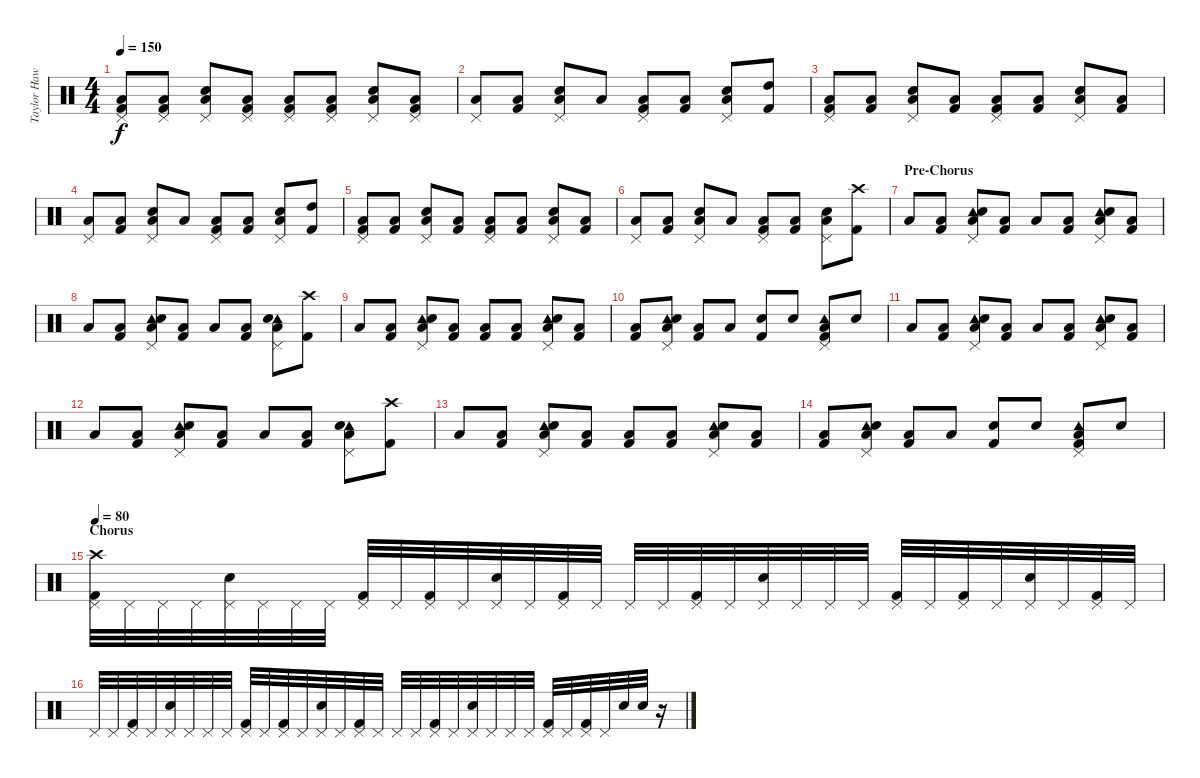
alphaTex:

\track ("Taylor Hawkins" "Taylor Haw") {instrument percussion}
\staff {score}
\articulation defaults
\ts (4 4)
\tempo 150
\clef neutral
\ks c
("Pedal Hi-Hat (hit)" "Low Floor Tom (hit)" "Kick (hit) 2").8{dy f} ("Pedal Hi-Hat (hit)" "Low Floor Tom (hit)" "Kick (hit) 2").8 ("Pedal Hi-Hat (hit)" "Low Floor Tom (hit)" "Snare (hit) 2").8 ("Pedal Hi-Hat (hit)" "Low Floor Tom (hit)" "Kick (hit) 2").8 ("Pedal Hi-Hat (hit)" "Low Floor Tom (hit)" "Kick (hit) 2").8 ("Pedal Hi-Hat (hit)" "Low Floor Tom (hit)" "Kick (hit) 2").8 ("Pedal Hi-Hat (hit)" "Low Floor Tom (hit)" "Snare (hit) 2").8 ("Pedal Hi-Hat (hit)" "Low Floor Tom (hit)" "Kick (hit) 2").8 |
("Pedal Hi-Hat (hit)" "Low Floor Tom (hit)").8 ("Low Floor Tom (hit)" "Kick (hit) 2").8 ("Pedal Hi-Hat (hit)" "Low Floor Tom (hit)" "Snare (hit) 2").8 "Low Floor Tom (hit)".8 ("Pedal Hi-Hat (hit)" "Low Floor Tom (hit)" "Kick (hit) 2").8 ("Low Floor Tom (hit)" "Kick (hit) 2").8 ("Pedal Hi-Hat (hit)" "Low Floor Tom (hit)" "Snare (hit) 2").8 ("High Tom (hit)" "Kick (hit) 2").8 |
("Pedal Hi-Hat (hit)" "Low Floor Tom (hit)" "Kick (hit) 2").8 ("Low Floor Tom (hit)" "Kick (hit) 2").8 ("Pedal Hi-Hat (hit)" "Low Floor Tom (hit)" "Snare (hit) 2").8 ("Low Floor Tom (hit)" "Kick (hit) 2").8 ("Pedal Hi-Hat (hit)" "Low Floor Tom (hit)" "Kick (hit) 2").8 ("Low Floor Tom (hit)" "Kick (hit) 2").8 ("Pedal Hi-Hat (hit)" "Low Floor Tom (hit)" "Snare (hit) 2").8 ("Low Floor Tom (hit)" "Kick (hit) 2").8 |
("Pedal Hi-Hat (hit)" "Low Floor Tom (hit)").8 ("Low Floor Tom (hit)" "Kick (hit) 2").8 ("Pedal Hi-Hat (hit)" "Low Floor Tom (hit)" "Snare (hit) 2").8 "Low Floor Tom (hit)".8 ("Pedal Hi-Hat (hit)" "Low Floor Tom (hit)" "Kick (hit) 2").8 ("Low Floor Tom (hit)" "Kick (hit) 2").8 ("Pedal Hi-Hat (hit)" "Low Floor Tom (hit)" "Snare (hit) 2").8 ("High Tom (hit)" "Kick (hit) 2").8 |
("Pedal Hi-Hat (hit)" "Low Floor Tom (hit)" "Kick (hit) 2").8 ("Low Floor Tom (hit)" "Kick (hit) 2").8 ("Pedal Hi-Hat (hit)" "Low Floor Tom (hit)" "Snare (hit) 2").8 ("Low Floor Tom (hit)" "Kick (hit) 2").8 ("Pedal Hi-Hat (hit)" "Low Floor Tom (hit)" "Kick (hit) 2").8 ("Low Floor Tom (hit)" "Kick (hit) 2").8 ("Pedal Hi-Hat (hit)" "Low Floor Tom (hit)" "Snare (hit) 2").8 ("Low Floor Tom (hit)" "Kick (hit) 2").8 |
("Pedal Hi-Hat (hit)" "Low Floor Tom (hit)").8 ("Low Floor Tom (hit)" "Kick (hit) 2").8 ("Pedal Hi-Hat (hit)" "Low Floor Tom (hit)" "Snare (hit) 2").8 "Low Floor Tom (hit)".8 ("Pedal Hi-Hat (hit)" "Low Floor Tom (hit)" "Kick (hit) 2").8 ("Low Floor Tom (hit)" "Kick (hit) 2").8 ("Pedal Hi-Hat (hit)" "Low Floor Tom (hit)" "Snare (hit) 2").8 ("Crash high (hit)" "Kick (hit) 2").8 |
\section ("" "Pre-Chorus")
"Low Floor Tom (hit)".8 ("Low Floor Tom (hit)" "Kick (hit) 2").8 ("Pedal Hi-Hat (hit)" "Tambourine (hit)" "Low Floor Tom (hit)" "Snare (hit) 2").8 ("Low Floor Tom (hit)" "Kick (hit) 2").8 "Low Floor Tom (hit)".8 ("Low Floor Tom (hit)" "Kick (hit) 2").8 ("Pedal Hi-Hat (hit)" "Tambourine (hit)" "Low Floor Tom (hit)" "Snare (hit) 2").8 ("Low Floor Tom (hit)" "Kick (hit) 2").8 |
"Low Floor Tom (hit)".8 ("Low Floor Tom (hit)" "Kick (hit) 2").8 ("Pedal Hi-Hat (hit)" "Tambourine (hit)" "Low Floor Tom (hit)" "Snare (hit) 2").8 ("Low Floor Tom (hit)" "Kick (hit) 2").8 "Low Floor Tom (hit)".8 ("Low Floor Tom (hit)" "Kick (hit) 2").8 ("Pedal Hi-Hat (hit)" "Tambourine (hit)" "Low Floor Tom (hit)" "Snare (hit) 2").8 ("Crash high (hit)" "Kick (hit) 2").8 |
"Low Floor Tom (hit)".8 ("Low Floor Tom (hit)" "Kick (hit) 2").8 ("Pedal Hi-Hat (hit)" "Tambourine (hit)" "Low Floor Tom (hit)" "Snare (hit) 2").8 ("Low Floor Tom (hit)" "Kick (hit) 2").8 ("Low Floor Tom (hit)" "Kick (hit) 2").8 ("Low Floor Tom (hit)" "Kick (hit) 2").8 ("Pedal Hi-Hat (hit)" "Tambourine (hit)" "Low Floor Tom (hit)" "Snare (hit) 2").8 ("Low Floor Tom (hit)" "Kick (hit) 2").8 |
("Low Floor Tom (hit)" "Kick (hit) 2").8 ("Pedal Hi-Hat (hit)" "Tambourine (hit)" "Low Floor Tom (hit)" "Snare (hit) 2").8 ("Low Floor Tom (hit)" "Kick (hit) 2").8 "Low Floor Tom (hit)".8 ("Snare (hit) 2" "Kick (hit) 2").8 "Snare (hit) 2".8 ("Pedal Hi-Hat (hit)" "Tambourine (hit)" "Low Floor Tom (hit)" "Kick (hit) 2").8 "Snare (hit) 2".8 |
"Low Floor Tom (hit)".8 ("Low Floor Tom (hit)" "Kick (hit) 2").8 ("Pedal Hi-Hat (hit)" "Tambourine (hit)" "Low Floor Tom (hit)" "Snare (hit) 2").8 ("Low Floor Tom (hit)" "Kick (hit) 2").8 "Low Floor Tom (hit)".8 ("Low Floor Tom (hit)" "Kick (hit) 2").8 ("Pedal Hi-Hat (hit)" "Tambourine (hit)" "Low Floor Tom (hit)" "Snare (hit) 2").8 ("Low Floor Tom (hit)" "Kick (hit) 2").8 |
"Low Floor Tom (hit)".8 ("Low Floor Tom (hit)" "Kick (hit) 2").8 ("Pedal Hi-Hat (hit)" "Tambourine (hit)" "Low Floor Tom (hit)" "Snare (hit) 2").8 ("Low Floor Tom (hit)" "Kick (hit) 2").8 "Low Floor Tom (hit)".8 ("Low Floor Tom (hit)" "Kick (hit) 2").8 ("Pedal Hi-Hat (hit)" "Tambourine (hit)" "Low Floor Tom (hit)" "Snare (hit) 2").8 ("Crash high (hit)" "Kick (hit) 2").8 |
"Low Floor Tom (hit)".8 ("Low Floor Tom (hit)" "Kick (hit) 2").8 ("Pedal Hi-Hat (hit)" "Tambourine (hit)" "Low Floor Tom (hit)" "Snare (hit) 2").8 ("Low Floor Tom (hit)" "Kick (hit) 2").8 ("Low Floor Tom (hit)" "Kick (hit) 2").8 ("Low Floor Tom (hit)" "Kick (hit) 2").8 ("Pedal Hi-Hat (hit)" "Tambourine (hit)" "Low Floor Tom (hit)" "Snare (hit) 2").8 ("Low Floor Tom (hit)" "Kick (hit) 2").8 |
("Low Floor Tom (hit)" "Kick (hit) 2").8 ("Pedal Hi-Hat (hit)" "Tambourine (hit)" "Low Floor Tom (hit)" "Snare (hit) 2").8 ("Low Floor Tom (hit)" "Kick (hit) 2").8 "Low Floor Tom (hit)".8 ("Snare (hit) 2" "Kick (hit) 2").8 "Snare (hit) 2".8 ("Pedal Hi-Hat (hit)" "Tambourine (hit)" "Low Floor Tom (hit)" "Kick (hit) 2").8 "Snare (hit) 2".8 |
\section ("" "Chorus")
\tempo 80
("Crash high (hit)" "Pedal Hi-Hat (hit)" "Kick (hit) 2").32 "Pedal Hi-Hat (hit)".32 "Pedal Hi-Hat (hit)".32 "Pedal Hi-Hat (hit)".32 ("Pedal Hi-Hat (hit)" "Snare (hit) 2").32 "Pedal Hi-Hat (hit)".32 "Pedal Hi-Hat (hit)".32 "Pedal Hi-Hat (hit)".32 ("Pedal Hi-Hat (hit)" "Kick (hit) 2").32 "Pedal Hi-Hat (hit)".32 ("Pedal Hi-Hat (hit)" "Kick (hit) 2").32 "Pedal Hi-Hat (hit)".32 ("Pedal Hi-Hat (hit)" "Snare (hit) 2").32 "Pedal Hi-Hat (hit)".32 ("Pedal Hi-Hat (hit)" "Kick (hit) 2").32 "Pedal Hi-Hat (hit)".32 "Pedal Hi-Hat (hit)".32 "Pedal Hi-Hat (hit)".32 ("Pedal Hi-Hat (hit)" "Kick (hit) 2").32 "Pedal Hi-Hat (hit)".32 ("Pedal Hi-Hat (hit)" "Snare (hit) 2").32 "Pedal Hi-Hat (hit)".32 "Pedal Hi-Hat (hit)".32 "Pedal Hi-Hat (hit)".32 ("Pedal Hi-Hat (hit)" "Kick (hit) 2").32 "Pedal Hi-Hat (hit)".32 ("Pedal Hi-Hat (hit)" "Kick (hit) 2").32 "Pedal Hi-Hat (hit)".32 ("Pedal Hi-Hat (hit)" "Snare (hit) 2").32 "Pedal Hi-Hat (hit)".32 ("Pedal Hi-Hat (hit)" "Kick (hit) 2").32 "Pedal Hi-Hat (hit)".32 |
"Pedal Hi-Hat (hit)".32 "Pedal Hi-Hat (hit)".32 ("Pedal Hi-Hat (hit)" "Kick (hit) 2").32 "Pedal Hi-Hat (hit)".32 ("Pedal Hi-Hat (hit)" "Snare (hit) 2").32 "Pedal Hi-Hat (hit)".32 "Pedal Hi-Hat (hit)".32 "Pedal Hi-Hat (hit)".32 ("Pedal Hi-Hat (hit)" "Kick (hit) 2").32 "Pedal Hi-Hat (hit)".32 ("Pedal Hi-Hat (hit)" "Kick (hit) 2").32 "Pedal Hi-Hat (hit)".32 ("Pedal Hi-Hat (hit)" "Snare (hit) 2").32 "Pedal Hi-Hat (hit)".32 ("Pedal Hi-Hat (hit)" "Kick (hit) 2").32 "Pedal Hi-Hat (hit)".32 "Pedal Hi-Hat (hit)".32 "Pedal Hi-Hat (hit)".32 ("Pedal Hi-Hat (hit)" "Kick (hit) 2").32 "Pedal Hi-Hat (hit)".32 ("Pedal Hi-Hat (hit)" "Snare (hit) 2").32 "Pedal Hi-Hat (hit)".32 "Pedal Hi-Hat (hit)".32 "Pedal Hi-Hat (hit)".32 ("Pedal Hi-Hat (hit)" "Kick (hit) 2").32 "Pedal Hi-Hat (hit)".32 ("Pedal Hi-Hat (hit)" "Kick (hit) 2").32 "Pedal Hi-Hat (hit)".32 "Snare (hit) 2".32 "Snare (hit) 2".32 r.16
